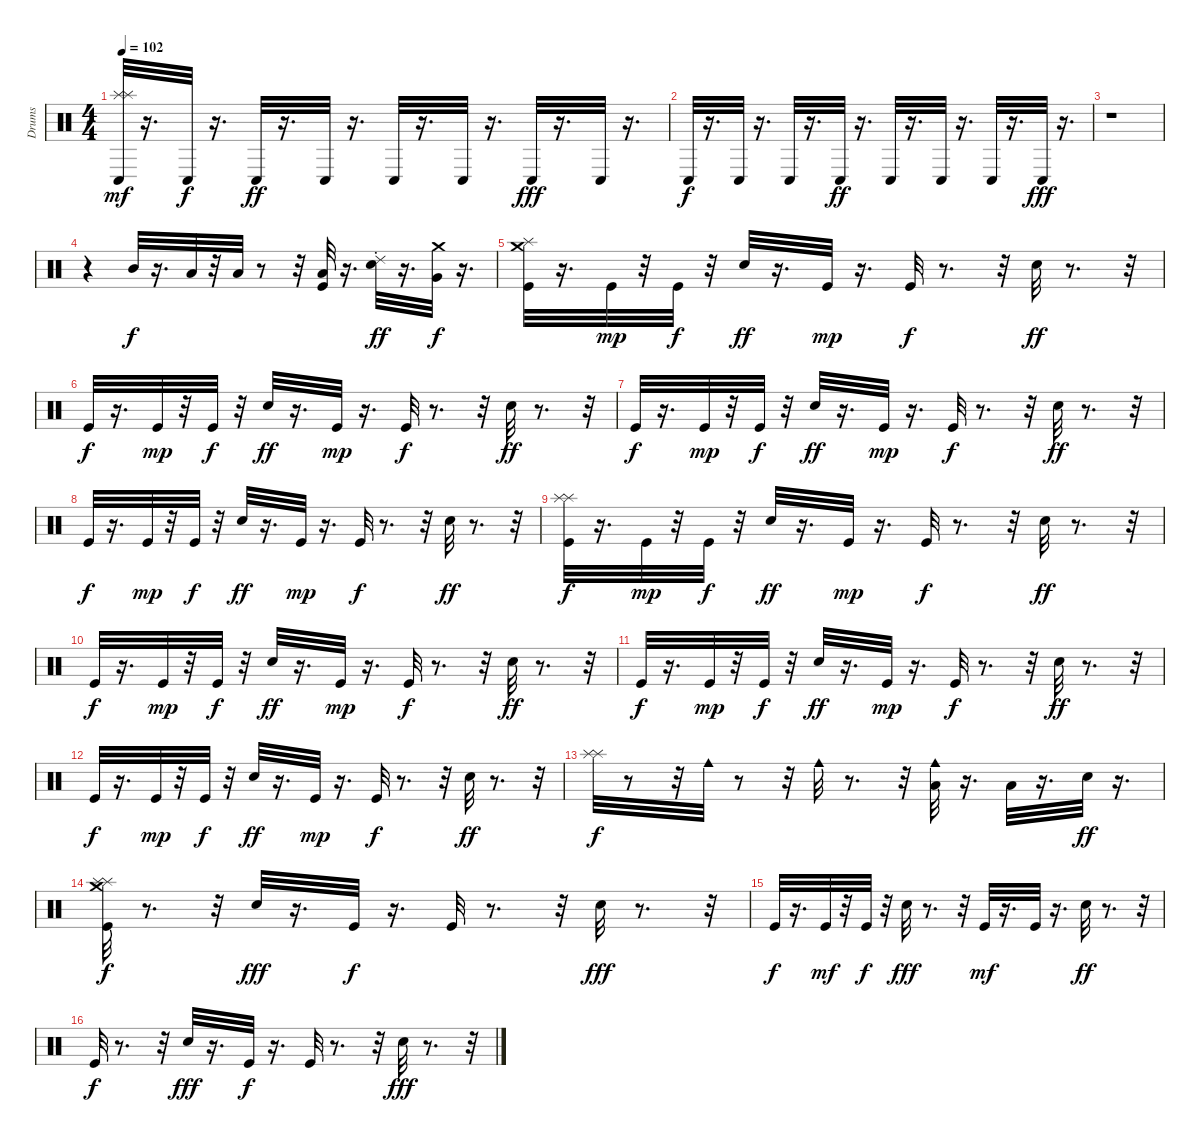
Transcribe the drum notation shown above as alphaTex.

\track ("Drums" "Drums") {instrument percussion}
\staff {score}
\articulation defaults
\ts (4 4)
\tempo 102
\clef neutral
\ks c
("Splash (hit)" "Splash (hit)" "Conga low (hit)").32{dy mf} r.16{d} "Conga low (hit)".32{dy f} r.16{d} "Conga low (hit)".32{dy ff} r.16{d} "Conga low (hit)".32 r.16{d} "Conga low (hit)".32 r.16{d} "Conga low (hit)".32 r.16{d} "Conga low (hit)".32{dy fff} r.16{d} "Conga low (hit)".32 r.16{d} |
"Conga low (hit)".32{dy f} r.16{d} "Conga low (hit)".32 r.16{d} "Conga low (hit)".32 r.16{d} "Conga low (hit)".32{dy ff} r.16{d} "Conga low (hit)".32 r.16{d} "Conga low (hit)".32 r.16{d} "Conga low (hit)".32 r.16{d} "Conga low (hit)".32{dy fff} r.16{d} |
r.1 |
r.4 "Mid Tom (hit)".32{dy f} r.16{d} "Low Tom (hit)".32 r.32 "Low Tom (hit)".32 r.8 r.32 ("Kick (hit)" "Low Floor Tom (hit)").32 r.16{d} ("Ride (choke) 2" "Electric Snare (hit)").32{dy ff} r.16{d} ("Crash medium (hit)" "Very Low Tom (hit)").32{dy f} r.16{d} |
("Crash medium (hit)" "Kick (hit)" "Splash (hit)").32 r.16{d} "Kick (hit)".32{dy mp} r.32 "Kick (hit)".32{dy f} r.32 "Electric Snare (hit)".32{dy ff} r.16{d} "Kick (hit)".32{dy mp} r.16{d} "Kick (hit)".32{dy f} r.8{d} r.32 "Electric Snare (hit)".32{dy ff} r.8{d} r.32 |
"Kick (hit)".32{dy f} r.16{d} "Kick (hit)".32{dy mp} r.32 "Kick (hit)".32{dy f} r.32 "Electric Snare (hit)".32{dy ff} r.16{d} "Kick (hit)".32{dy mp} r.16{d} "Kick (hit)".32{dy f} r.8{d} r.32 "Electric Snare (hit)".32{dy ff} r.8{d} r.32 |
"Kick (hit)".32{dy f} r.16{d} "Kick (hit)".32{dy mp} r.32 "Kick (hit)".32{dy f} r.32 "Electric Snare (hit)".32{dy ff} r.16{d} "Kick (hit)".32{dy mp} r.16{d} "Kick (hit)".32{dy f} r.8{d} r.32 "Electric Snare (hit)".32{dy ff} r.8{d} r.32 |
"Kick (hit)".32{dy f} r.16{d} "Kick (hit)".32{dy mp} r.32 "Kick (hit)".32{dy f} r.32 "Electric Snare (hit)".32{dy ff} r.16{d} "Kick (hit)".32{dy mp} r.16{d} "Kick (hit)".32{dy f} r.8{d} r.32 "Electric Snare (hit)".32{dy ff} r.8{d} r.32 |
("Splash (hit)" "Splash (hit)" "Kick (hit)").32{dy f} r.16{d} "Kick (hit)".32{dy mp} r.32 "Kick (hit)".32{dy f} r.32 "Electric Snare (hit)".32{dy ff} r.16{d} "Kick (hit)".32{dy mp} r.16{d} "Kick (hit)".32{dy f} r.8{d} r.32 "Electric Snare (hit)".32{dy ff} r.8{d} r.32 |
"Kick (hit)".32{dy f} r.16{d} "Kick (hit)".32{dy mp} r.32 "Kick (hit)".32{dy f} r.32 "Electric Snare (hit)".32{dy ff} r.16{d} "Kick (hit)".32{dy mp} r.16{d} "Kick (hit)".32{dy f} r.8{d} r.32 "Electric Snare (hit)".32{dy ff} r.8{d} r.32 |
"Kick (hit)".32{dy f} r.16{d} "Kick (hit)".32{dy mp} r.32 "Kick (hit)".32{dy f} r.32 "Electric Snare (hit)".32{dy ff} r.16{d} "Kick (hit)".32{dy mp} r.16{d} "Kick (hit)".32{dy f} r.8{d} r.32 "Electric Snare (hit)".32{dy ff} r.8{d} r.32 |
"Kick (hit)".32{dy f} r.16{d} "Kick (hit)".32{dy mp} r.32 "Kick (hit)".32{dy f} r.32 "Electric Snare (hit)".32{dy ff} r.16{d} "Kick (hit)".32{dy mp} r.16{d} "Kick (hit)".32{dy f} r.8{d} r.32 "Electric Snare (hit)".32{dy ff} r.8{d} r.32 |
("Splash (hit)" "Splash (hit)").32{dy f} r.8 r.32 "Cowbell medium (hit)".32 r.8 r.32 "Cowbell medium (hit)".32 r.8{d} r.32 ("Low Floor Tom (hit)" "Cowbell medium (hit)").32 r.16{d} "Low Floor Tom (hit)".32 r.16{d} "Electric Snare (hit)".32{dy ff} r.16{d} |
("Splash (hit)" "Splash (hit)" "Crash medium (hit)" "Kick (hit)").32{dy f} r.8{d} r.32 "Electric Snare (hit)".32{dy fff} r.16{d} "Kick (hit)".32{dy f} r.16{d} "Kick (hit)".32 r.8{d} r.32 "Electric Snare (hit)".32{dy fff} r.8{d} r.32 |
"Kick (hit)".32{dy f} r.16{d} "Kick (hit)".32{dy mf} r.32 "Kick (hit)".32{dy f} r.32 "Electric Snare (hit)".32{dy fff} r.8{d} r.32 "Kick (hit)".32{dy mf} r.16{d} "Kick (hit)".32 r.16{d} "Electric Snare (hit)".32{dy ff} r.8{d} r.32 |
"Kick (hit)".32{dy f} r.8{d} r.32 "Electric Snare (hit)".32{dy fff} r.16{d} "Kick (hit)".32{dy f} r.16{d} "Kick (hit)".32 r.8{d} r.32 "Electric Snare (hit)".32{dy fff} r.8{d} r.32
